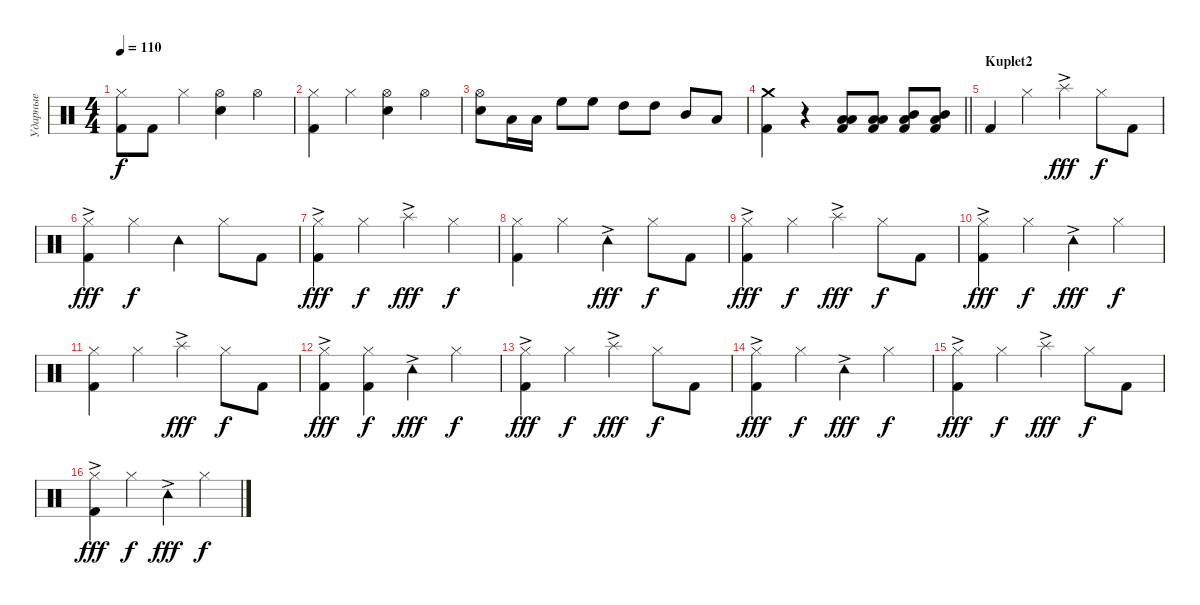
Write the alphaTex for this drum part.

\track ("Ударные" "Ударные") {instrument percussion}
\staff {score}
\articulation defaults
\ts (4 4)
\tempo 110
\clef neutral
\ks c
("Hi-Hat (closed)" "Kick (hit) 2").8{dy f} "Kick (hit) 2".8 "Hi-Hat (closed)".4 ("Hi-Hat (open)" "Snare (hit) 2").4 "Hi-Hat (open)".4 |
("Hi-Hat (closed)" "Kick (hit) 2").4 "Hi-Hat (closed)".4 ("Hi-Hat (open)" "Snare (hit) 2").4 "Hi-Hat (open)".4 |
("Hi-Hat (open)" "Snare (hit) 2").8 "Low Tom (hit)".16 "Low Tom (hit)".16 "High Floor Tom (hit)".8 "High Floor Tom (hit)".8 "High Tom (hit)".8 "High Tom (hit)".8 "Mid Tom (hit)".8 "Low Tom (hit)".8 |
\barLineRight lightlight
("Crash medium (hit)" "Kick (hit) 2").4 r.4 ("Low Tom (hit)" "Low Tom (hit)" "Kick (hit) 2").8 ("Low Tom (hit)" "Low Tom (hit)" "Kick (hit) 2").8 ("Mid Tom (hit)" "Low Tom (hit)" "Kick (hit) 2").8 ("Mid Tom (hit)" "Low Tom (hit)" "Kick (hit) 2").8 |
\section ("" "Kuplet2")
"Kick (hit) 2".4 "Hi-Hat (closed)".4 "Splash (hit)"{ac}.4{dy fff} "Hi-Hat (closed)".8{dy f} "Kick (hit) 2".8 |
("Hi-Hat (closed)"{ac} "Kick (hit) 2").4{dy fff} "Hi-Hat (closed)".4{dy f} "Tambourine (hit)".4 "Hi-Hat (closed)".8 "Kick (hit) 2".8 |
("Hi-Hat (closed)"{ac} "Kick (hit) 2").4{dy fff} "Hi-Hat (closed)".4{dy f} "Splash (hit)"{ac}.4{dy fff} "Hi-Hat (closed)".4{dy f} |
("Kick (hit) 2" "Hi-Hat (closed)").4 "Hi-Hat (closed)".4 "Tambourine (hit)"{ac}.4{dy fff} "Hi-Hat (closed)".8{dy f} "Kick (hit) 2".8 |
("Hi-Hat (closed)"{ac} "Kick (hit) 2").4{dy fff} "Hi-Hat (closed)".4{dy f} "Splash (hit)"{ac}.4{dy fff} "Hi-Hat (closed)".8{dy f} "Kick (hit) 2".8 |
("Hi-Hat (closed)"{ac} "Kick (hit) 2").4{dy fff} "Hi-Hat (closed)".4{dy f} "Tambourine (hit)"{ac}.4{dy fff} "Hi-Hat (closed)".4{dy f} |
("Kick (hit) 2" "Hi-Hat (closed)").4 "Hi-Hat (closed)".4 "Splash (hit)"{ac}.4{dy fff} "Hi-Hat (closed)".8{dy f} "Kick (hit) 2".8 |
("Hi-Hat (closed)"{ac} "Kick (hit) 2").4{dy fff} ("Hi-Hat (closed)" "Kick (hit) 2").4{dy f} "Tambourine (hit)"{ac}.4{dy fff} "Hi-Hat (closed)".4{dy f} |
("Hi-Hat (closed)"{ac} "Kick (hit) 2").4{dy fff} "Hi-Hat (closed)".4{dy f} "Splash (hit)"{ac}.4{dy fff} "Hi-Hat (closed)".8{dy f} "Kick (hit) 2".8 |
("Hi-Hat (closed)" "Kick (hit) 2"{ac}).4{dy fff} "Hi-Hat (closed)".4{dy f} "Tambourine (hit)"{ac}.4{dy fff} "Hi-Hat (closed)".4{dy f} |
("Kick (hit) 2" "Hi-Hat (closed)"{ac}).4{dy fff} "Hi-Hat (closed)".4{dy f} "Splash (hit)"{ac}.4{dy fff} "Hi-Hat (closed)".8{dy f} "Kick (hit) 2".8 |
("Hi-Hat (closed)"{ac} "Kick (hit) 2").4{dy fff} "Hi-Hat (closed)".4{dy f} "Tambourine (hit)"{ac}.4{dy fff} "Hi-Hat (closed)".4{dy f}
